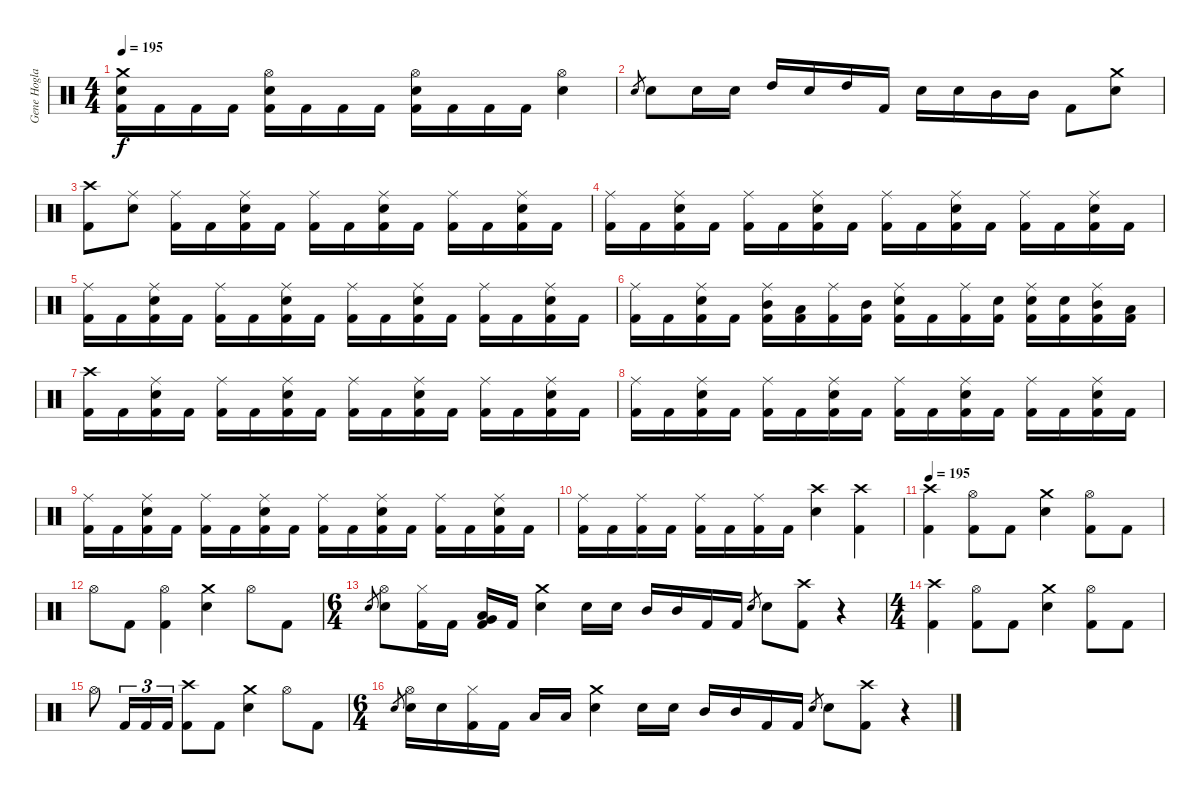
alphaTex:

\track ("Gene Hoglan" "Gene Hogla") {instrument percussion}
\staff {score}
\articulation defaults
\ts (4 4)
\tempo 195
\clef neutral
\ks c
("Crash medium (hit)" "Electric Snare (hit)" "Kick (hit) 2").16{dy f} "Kick (hit) 2".16 "Kick (hit) 2".16 "Kick (hit) 2".16 ("Hi-Hat (open)" "Electric Snare (hit)" "Kick (hit) 2").16 "Kick (hit) 2".16 "Kick (hit) 2".16 "Kick (hit) 2".16 ("Hi-Hat (open)" "Electric Snare (hit)" "Kick (hit) 2").16 "Kick (hit) 2".16 "Kick (hit) 2".16 "Kick (hit) 2".16 ("Hi-Hat (open)" "Electric Snare (hit)").4 |
"Electric Snare (hit)".8{gr} "Electric Snare (hit)".8 "Electric Snare (hit)".16 "Electric Snare (hit)".16 "High Tom (hit)".16 "Electric Snare (hit)".16 "High Tom (hit)".16 "Kick (hit) 2".16 "Electric Snare (hit)".16 "Electric Snare (hit)".16 "Mid Tom (hit)".16 "Mid Tom (hit)".16 "Kick (hit) 2".8 ("Crash medium (hit)" "Electric Snare (hit)").8 |
("Crash high (hit)" "Kick (hit) 2").8 ("Ride (middle)" "Electric Snare (hit)").8 ("Ride (middle)" "Kick (hit) 2").16 "Kick (hit) 2".16 ("Ride (middle)" "Electric Snare (hit)" "Kick (hit) 2").16 "Kick (hit) 2".16 ("Ride (middle)" "Kick (hit) 2").16 "Kick (hit) 2".16 ("Ride (middle)" "Electric Snare (hit)" "Kick (hit) 2").16 "Kick (hit) 2".16 ("Ride (middle)" "Kick (hit) 2").16 "Kick (hit) 2".16 ("Ride (middle)" "Electric Snare (hit)" "Kick (hit) 2").16 "Kick (hit) 2".16 |
("Ride (middle)" "Kick (hit) 2").16 "Kick (hit) 2".16 ("Ride (middle)" "Electric Snare (hit)" "Kick (hit) 2").16 "Kick (hit) 2".16 ("Ride (middle)" "Kick (hit) 2").16 "Kick (hit) 2".16 ("Ride (middle)" "Electric Snare (hit)" "Kick (hit) 2").16 "Kick (hit) 2".16 ("Ride (middle)" "Kick (hit) 2").16 "Kick (hit) 2".16 ("Ride (middle)" "Electric Snare (hit)" "Kick (hit) 2").16 "Kick (hit) 2".16 ("Ride (middle)" "Kick (hit) 2").16 "Kick (hit) 2".16 ("Ride (middle)" "Electric Snare (hit)" "Kick (hit) 2").16 "Kick (hit) 2".16 |
("Ride (middle)" "Kick (hit) 2").16 "Kick (hit) 2".16 ("Ride (middle)" "Electric Snare (hit)" "Kick (hit) 2").16 "Kick (hit) 2".16 ("Ride (middle)" "Kick (hit) 2").16 "Kick (hit) 2".16 ("Ride (middle)" "Electric Snare (hit)" "Kick (hit) 2").16 "Kick (hit) 2".16 ("Ride (middle)" "Kick (hit) 2").16 "Kick (hit) 2".16 ("Ride (middle)" "Electric Snare (hit)" "Kick (hit) 2").16 "Kick (hit) 2".16 ("Ride (middle)" "Kick (hit) 2").16 "Kick (hit) 2".16 ("Ride (middle)" "Electric Snare (hit)" "Kick (hit) 2").16 "Kick (hit) 2".16 |
("Ride (middle)" "Kick (hit) 2").16 "Kick (hit) 2".16 ("Ride (middle)" "Electric Snare (hit)" "Kick (hit) 2").16 "Kick (hit) 2".16 ("Ride (middle)" "Mid Tom (hit)" "Kick (hit) 2").16 ("Low Tom (hit)" "Kick (hit) 2").16 ("Ride (middle)" "Kick (hit) 2").16 ("Mid Tom (hit)" "Kick (hit) 2").16 ("Ride (middle)" "Electric Snare (hit)" "Kick (hit) 2").16 "Kick (hit) 2".16 ("Ride (middle)" "Kick (hit) 2").16 ("Electric Snare (hit)" "Kick (hit) 2").16 ("Ride (middle)" "Electric Snare (hit)" "Kick (hit) 2").16 ("Electric Snare (hit)" "Kick (hit) 2").16 ("Ride (middle)" "Mid Tom (hit)" "Kick (hit) 2").16 ("Low Tom (hit)" "Kick (hit) 2").16 |
("Crash high (hit)" "Kick (hit) 2").16 "Kick (hit) 2".16 ("Ride (middle)" "Electric Snare (hit)" "Kick (hit) 2").16 "Kick (hit) 2".16 ("Ride (middle)" "Kick (hit) 2").16 "Kick (hit) 2".16 ("Ride (middle)" "Electric Snare (hit)" "Kick (hit) 2").16 "Kick (hit) 2".16 ("Ride (middle)" "Kick (hit) 2").16 "Kick (hit) 2".16 ("Ride (middle)" "Electric Snare (hit)" "Kick (hit) 2").16 "Kick (hit) 2".16 ("Ride (middle)" "Kick (hit) 2").16 "Kick (hit) 2".16 ("Ride (middle)" "Electric Snare (hit)" "Kick (hit) 2").16 "Kick (hit) 2".16 |
("Ride (middle)" "Kick (hit) 2").16 "Kick (hit) 2".16 ("Ride (middle)" "Electric Snare (hit)" "Kick (hit) 2").16 "Kick (hit) 2".16 ("Ride (middle)" "Kick (hit) 2").16 "Kick (hit) 2".16 ("Ride (middle)" "Electric Snare (hit)" "Kick (hit) 2").16 "Kick (hit) 2".16 ("Ride (middle)" "Kick (hit) 2").16 "Kick (hit) 2".16 ("Ride (middle)" "Electric Snare (hit)" "Kick (hit) 2").16 "Kick (hit) 2".16 ("Ride (middle)" "Kick (hit) 2").16 "Kick (hit) 2".16 ("Ride (middle)" "Electric Snare (hit)" "Kick (hit) 2").16 "Kick (hit) 2".16 |
("Ride (middle)" "Kick (hit) 2").16 "Kick (hit) 2".16 ("Ride (middle)" "Electric Snare (hit)" "Kick (hit) 2").16 "Kick (hit) 2".16 ("Ride (middle)" "Kick (hit) 2").16 "Kick (hit) 2".16 ("Ride (middle)" "Electric Snare (hit)" "Kick (hit) 2").16 "Kick (hit) 2".16 ("Ride (middle)" "Kick (hit) 2").16 "Kick (hit) 2".16 ("Ride (middle)" "Electric Snare (hit)" "Kick (hit) 2").16 "Kick (hit) 2".16 ("Ride (middle)" "Kick (hit) 2").16 "Kick (hit) 2".16 ("Ride (middle)" "Electric Snare (hit)" "Kick (hit) 2").16 "Kick (hit) 2".16 |
("Ride (middle)" "Kick (hit) 2").16 "Kick (hit) 2".16 ("Ride (middle)" "Kick (hit) 2").16 "Kick (hit) 2".16 ("Ride (middle)" "Kick (hit) 2").16 "Kick (hit) 2".16 ("Ride (middle)" "Kick (hit) 2").16 "Kick (hit) 2".16 ("Crash high (hit)" "Electric Snare (hit)").4 ("Crash high (hit)" "Kick (hit) 2").4 |
\tempo 195
("Crash high (hit)" "Kick (hit) 2").4 ("Hi-Hat (open)" "Kick (hit) 2").8 "Kick (hit) 2".8 ("Crash medium (hit)" "Electric Snare (hit)").4 ("Hi-Hat (open)" "Kick (hit) 2").8 "Kick (hit) 2".8 |
"Hi-Hat (open)".8 "Kick (hit) 2".8 ("Hi-Hat (open)" "Kick (hit) 2").4 ("Crash medium (hit)" "Electric Snare (hit)").4 "Hi-Hat (open)".8 "Kick (hit) 2".8 |
\ts (6 4)
"Electric Snare (hit)".8{gr} ("Hi-Hat (open)" "Electric Snare (hit)").8 ("Hi-Hat (closed)" "Kick (hit) 2").16 "Kick (hit) 2".16 ("Low Tom (hit)" "Very Low Tom (hit)" "Kick (hit) 2").16 "Kick (hit) 2".16 ("Crash medium (hit)" "Electric Snare (hit)").4 "Electric Snare (hit)".16 "Electric Snare (hit)".16 "Mid Tom (hit)".16 "Mid Tom (hit)".16 "Kick (hit) 2".16 "Kick (hit) 2".16 "Electric Snare (hit)".8{gr} "Electric Snare (hit)".8 ("Crash high (hit)" "Kick (hit) 2").8 r.4 |
\ts (4 4)
("Crash high (hit)" "Kick (hit) 2").4 ("Hi-Hat (open)" "Kick (hit) 2").8 "Kick (hit) 2".8 ("Crash medium (hit)" "Electric Snare (hit)").4 ("Hi-Hat (open)" "Kick (hit) 2").8 "Kick (hit) 2".8 |
"Hi-Hat (open)".8 "Kick (hit) 2".16{tu (3 2)} "Kick (hit) 2".16{tu (3 2)} "Kick (hit) 2".16{tu (3 2)} ("Crash high (hit)" "Kick (hit) 2").8 "Kick (hit) 2".8 ("Crash medium (hit)" "Electric Snare (hit)").4 "Hi-Hat (open)".8 "Kick (hit) 2".8 |
\ts (6 4)
"Electric Snare (hit)".8{gr} ("Hi-Hat (open)" "Electric Snare (hit)").16 "Electric Snare (hit)".16 ("Hi-Hat (closed)" "Kick (hit) 2").16 "Kick (hit) 2".16 "Low Tom (hit)".16 "Low Tom (hit)".16 ("Crash medium (hit)" "Electric Snare (hit)").4 "Electric Snare (hit)".16 "Electric Snare (hit)".16 "Mid Tom (hit)".16 "Mid Tom (hit)".16 "Kick (hit) 2".16 "Kick (hit) 2".16 "Electric Snare (hit)".8{gr} "Electric Snare (hit)".8 ("Crash high (hit)" "Kick (hit) 2").8 r.4
